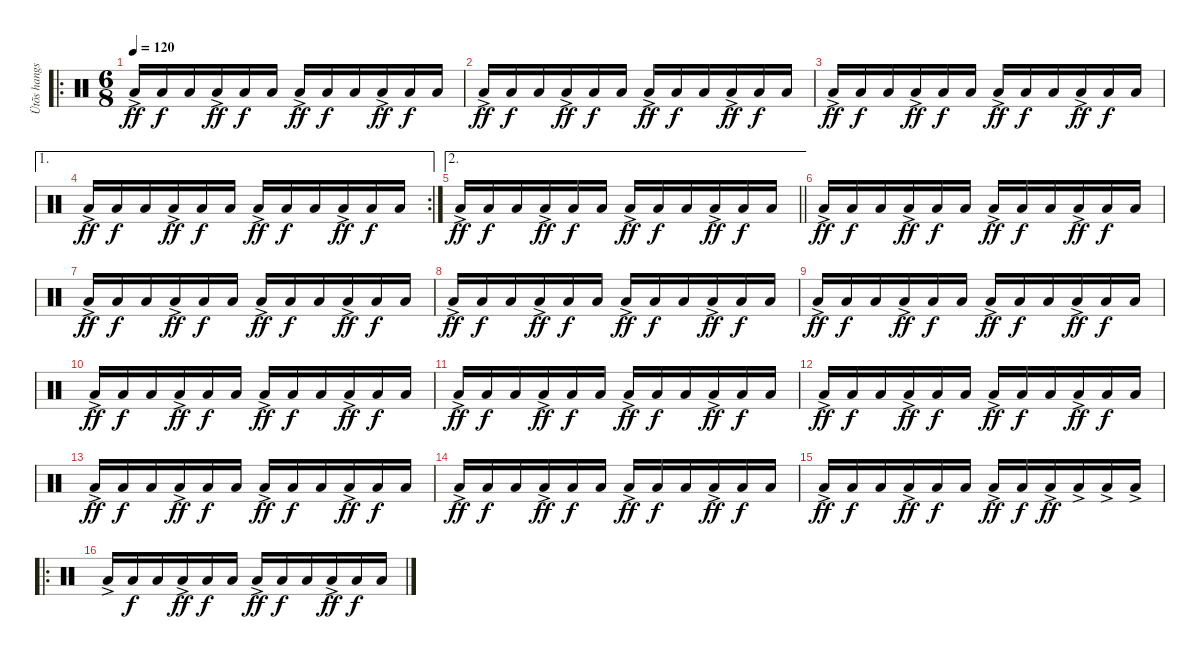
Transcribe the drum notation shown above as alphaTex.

\track ("Ütõs hangszer" "Ütõs hangs") {instrument percussion}
\staff {score}
\articulation defaults
\ro
\ts (6 8)
\tempo 120
\clef neutral
\ks c "Low Floor Tom (hit)"{ac}.16{dy ff} "Low Floor Tom (hit)".16{dy f} "Low Floor Tom (hit)".16 "Low Floor Tom (hit)"{ac}.16{dy ff} "Low Floor Tom (hit)".16{dy f} "Low Floor Tom (hit)".16 "Low Floor Tom (hit)"{ac}.16{dy ff} "Low Floor Tom (hit)".16{dy f} "Low Floor Tom (hit)".16 "Low Floor Tom (hit)"{ac}.16{dy ff} "Low Floor Tom (hit)".16{dy f} "Low Floor Tom (hit)".16
|
"Low Floor Tom (hit)"{ac}.16{dy ff} "Low Floor Tom (hit)".16{dy f} "Low Floor Tom (hit)".16 "Low Floor Tom (hit)"{ac}.16{dy ff} "Low Floor Tom (hit)".16{dy f} "Low Floor Tom (hit)".16 "Low Floor Tom (hit)"{ac}.16{dy ff} "Low Floor Tom (hit)".16{dy f} "Low Floor Tom (hit)".16 "Low Floor Tom (hit)"{ac}.16{dy ff} "Low Floor Tom (hit)".16{dy f} "Low Floor Tom (hit)".16 |
"Low Floor Tom (hit)"{ac}.16{dy ff} "Low Floor Tom (hit)".16{dy f} "Low Floor Tom (hit)".16 "Low Floor Tom (hit)"{ac}.16{dy ff} "Low Floor Tom (hit)".16{dy f} "Low Floor Tom (hit)".16 "Low Floor Tom (hit)"{ac}.16{dy ff} "Low Floor Tom (hit)".16{dy f} "Low Floor Tom (hit)".16 "Low Floor Tom (hit)"{ac}.16{dy ff} "Low Floor Tom (hit)".16{dy f} "Low Floor Tom (hit)".16 |
\ae 1
\rc 2 "Low Floor Tom (hit)"{ac}.16{dy ff} "Low Floor Tom (hit)".16{dy f} "Low Floor Tom (hit)".16 "Low Floor Tom (hit)"{ac}.16{dy ff} "Low Floor Tom (hit)".16{dy f} "Low Floor Tom (hit)".16 "Low Floor Tom (hit)"{ac}.16{dy ff} "Low Floor Tom (hit)".16{dy f} "Low Floor Tom (hit)".16 "Low Floor Tom (hit)"{ac}.16{dy ff} "Low Floor Tom (hit)".16{dy f} "Low Floor Tom (hit)".16
|
\ae 2
\barLineRight lightlight "Low Floor Tom (hit)"{ac}.16{dy ff} "Low Floor Tom (hit)".16{dy f} "Low Floor Tom (hit)".16 "Low Floor Tom (hit)"{ac}.16{dy ff} "Low Floor Tom (hit)".16{dy f} "Low Floor Tom (hit)".16 "Low Floor Tom (hit)"{ac}.16{dy ff} "Low Floor Tom (hit)".16{dy f} "Low Floor Tom (hit)".16 "Low Floor Tom (hit)"{ac}.16{dy ff} "Low Floor Tom (hit)".16{dy f} "Low Floor Tom (hit)".16
|
"Low Floor Tom (hit)"{ac}.16{dy ff} "Low Floor Tom (hit)".16{dy f} "Low Floor Tom (hit)".16 "Low Floor Tom (hit)"{ac}.16{dy ff} "Low Floor Tom (hit)".16{dy f} "Low Floor Tom (hit)".16 "Low Floor Tom (hit)"{ac}.16{dy ff} "Low Floor Tom (hit)".16{dy f} "Low Floor Tom (hit)".16 "Low Floor Tom (hit)"{ac}.16{dy ff} "Low Floor Tom (hit)".16{dy f} "Low Floor Tom (hit)".16 |
"Low Floor Tom (hit)"{ac}.16{dy ff} "Low Floor Tom (hit)".16{dy f} "Low Floor Tom (hit)".16 "Low Floor Tom (hit)"{ac}.16{dy ff} "Low Floor Tom (hit)".16{dy f} "Low Floor Tom (hit)".16 "Low Floor Tom (hit)"{ac}.16{dy ff} "Low Floor Tom (hit)".16{dy f} "Low Floor Tom (hit)".16 "Low Floor Tom (hit)"{ac}.16{dy ff} "Low Floor Tom (hit)".16{dy f} "Low Floor Tom (hit)".16 |
"Low Floor Tom (hit)"{ac}.16{dy ff} "Low Floor Tom (hit)".16{dy f} "Low Floor Tom (hit)".16 "Low Floor Tom (hit)"{ac}.16{dy ff} "Low Floor Tom (hit)".16{dy f} "Low Floor Tom (hit)".16 "Low Floor Tom (hit)"{ac}.16{dy ff} "Low Floor Tom (hit)".16{dy f} "Low Floor Tom (hit)".16 "Low Floor Tom (hit)"{ac}.16{dy ff} "Low Floor Tom (hit)".16{dy f} "Low Floor Tom (hit)".16 |
"Low Floor Tom (hit)"{ac}.16{dy ff} "Low Floor Tom (hit)".16{dy f} "Low Floor Tom (hit)".16 "Low Floor Tom (hit)"{ac}.16{dy ff} "Low Floor Tom (hit)".16{dy f} "Low Floor Tom (hit)".16 "Low Floor Tom (hit)"{ac}.16{dy ff} "Low Floor Tom (hit)".16{dy f} "Low Floor Tom (hit)".16 "Low Floor Tom (hit)"{ac}.16{dy ff} "Low Floor Tom (hit)".16{dy f} "Low Floor Tom (hit)".16 |
"Low Floor Tom (hit)"{ac}.16{dy ff} "Low Floor Tom (hit)".16{dy f} "Low Floor Tom (hit)".16 "Low Floor Tom (hit)"{ac}.16{dy ff} "Low Floor Tom (hit)".16{dy f} "Low Floor Tom (hit)".16 "Low Floor Tom (hit)"{ac}.16{dy ff} "Low Floor Tom (hit)".16{dy f} "Low Floor Tom (hit)".16 "Low Floor Tom (hit)"{ac}.16{dy ff} "Low Floor Tom (hit)".16{dy f} "Low Floor Tom (hit)".16 |
"Low Floor Tom (hit)"{ac}.16{dy ff} "Low Floor Tom (hit)".16{dy f} "Low Floor Tom (hit)".16 "Low Floor Tom (hit)"{ac}.16{dy ff} "Low Floor Tom (hit)".16{dy f} "Low Floor Tom (hit)".16 "Low Floor Tom (hit)"{ac}.16{dy ff} "Low Floor Tom (hit)".16{dy f} "Low Floor Tom (hit)".16 "Low Floor Tom (hit)"{ac}.16{dy ff} "Low Floor Tom (hit)".16{dy f} "Low Floor Tom (hit)".16 |
"Low Floor Tom (hit)"{ac}.16{dy ff} "Low Floor Tom (hit)".16{dy f} "Low Floor Tom (hit)".16 "Low Floor Tom (hit)"{ac}.16{dy ff} "Low Floor Tom (hit)".16{dy f} "Low Floor Tom (hit)".16 "Low Floor Tom (hit)"{ac}.16{dy ff} "Low Floor Tom (hit)".16{dy f} "Low Floor Tom (hit)".16 "Low Floor Tom (hit)"{ac}.16{dy ff} "Low Floor Tom (hit)".16{dy f} "Low Floor Tom (hit)".16 |
"Low Floor Tom (hit)"{ac}.16{dy ff} "Low Floor Tom (hit)".16{dy f} "Low Floor Tom (hit)".16 "Low Floor Tom (hit)"{ac}.16{dy ff} "Low Floor Tom (hit)".16{dy f} "Low Floor Tom (hit)".16 "Low Floor Tom (hit)"{ac}.16{dy ff} "Low Floor Tom (hit)".16{dy f} "Low Floor Tom (hit)".16 "Low Floor Tom (hit)"{ac}.16{dy ff} "Low Floor Tom (hit)".16{dy f} "Low Floor Tom (hit)".16 |
"Low Floor Tom (hit)"{ac}.16{dy ff} "Low Floor Tom (hit)".16{dy f} "Low Floor Tom (hit)".16 "Low Floor Tom (hit)"{ac}.16{dy ff} "Low Floor Tom (hit)".16{dy f} "Low Floor Tom (hit)".16 "Low Floor Tom (hit)"{ac}.16{dy ff} "Low Floor Tom (hit)".16{dy f} "Low Floor Tom (hit)".16 "Low Floor Tom (hit)"{ac}.16{dy ff} "Low Floor Tom (hit)".16{dy f} "Low Floor Tom (hit)".16 |
"Low Floor Tom (hit)"{ac}.16{dy ff} "Low Floor Tom (hit)".16{dy f} "Low Floor Tom (hit)".16 "Low Floor Tom (hit)"{ac}.16{dy ff} "Low Floor Tom (hit)".16{dy f} "Low Floor Tom (hit)".16 "Low Floor Tom (hit)"{ac}.16{dy ff} "Low Floor Tom (hit)".16{dy f} "Low Floor Tom (hit)"{ac}.16{dy ff} "Low Floor Tom (hit)"{ac}.16 "Low Floor Tom (hit)"{ac}.16 "Low Floor Tom (hit)"{ac}.16 |
\ro "Low Floor Tom (hit)"{ac}.16 "Low Floor Tom (hit)".16{dy f} "Low Floor Tom (hit)".16 "Low Floor Tom (hit)"{ac}.16{dy ff} "Low Floor Tom (hit)".16{dy f} "Low Floor Tom (hit)".16 "Low Floor Tom (hit)"{ac}.16{dy ff} "Low Floor Tom (hit)".16{dy f} "Low Floor Tom (hit)".16 "Low Floor Tom (hit)"{ac}.16{dy ff} "Low Floor Tom (hit)".16{dy f} "Low Floor Tom (hit)".16
